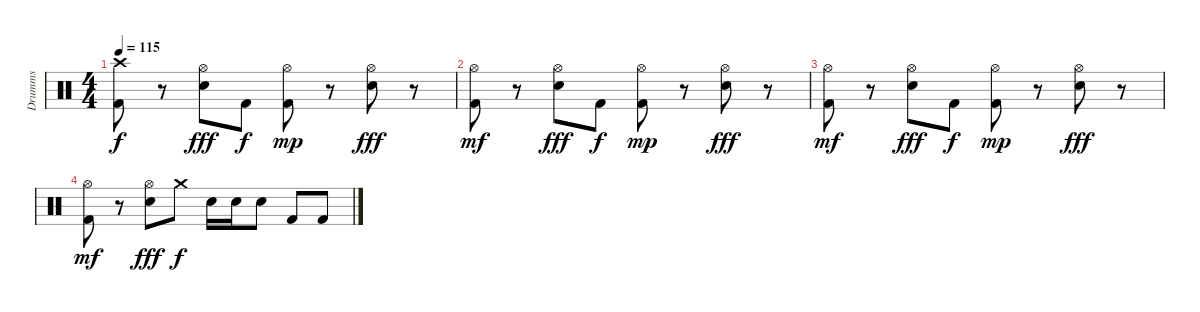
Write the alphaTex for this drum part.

\track ("Drumms" "Drumms") {instrument percussion}
\staff {score}
\articulation defaults
\ts (4 4)
\tempo 115
\clef neutral
\ks c
("Crash high (hit)" "Kick (hit) 2").8{dy f} r.8 ("Hi-Hat (open)" "Snare (hit) 2").8{dy fff} "Kick (hit) 2".8{dy f} ("Hi-Hat (open)" "Kick (hit) 2").8{dy mp} r.8 ("Hi-Hat (open)" "Snare (hit) 2").8{dy fff} r.8 |
("Hi-Hat (open)" "Kick (hit) 2").8{dy mf} r.8 ("Hi-Hat (open)" "Snare (hit) 2").8{dy fff} "Kick (hit) 2".8{dy f} ("Hi-Hat (open)" "Kick (hit) 2").8{dy mp} r.8 ("Hi-Hat (open)" "Snare (hit) 2").8{dy fff} r.8 |
("Hi-Hat (open)" "Kick (hit) 2").8{dy mf} r.8 ("Hi-Hat (open)" "Snare (hit) 2").8{dy fff} "Kick (hit) 2".8{dy f} ("Hi-Hat (open)" "Kick (hit) 2").8{dy mp} r.8 ("Hi-Hat (open)" "Snare (hit) 2").8{dy fff} r.8 |
("Hi-Hat (open)" "Kick (hit) 2").8{dy mf} r.8 ("Hi-Hat (open)" "Snare (hit) 2").8{dy fff} "Crash medium (hit)".8{dy f} "Electric Snare (hit)".16 "Electric Snare (hit)".16 "Electric Snare (hit)".8 "Kick (hit) 2".8 "Kick (hit) 2".8
